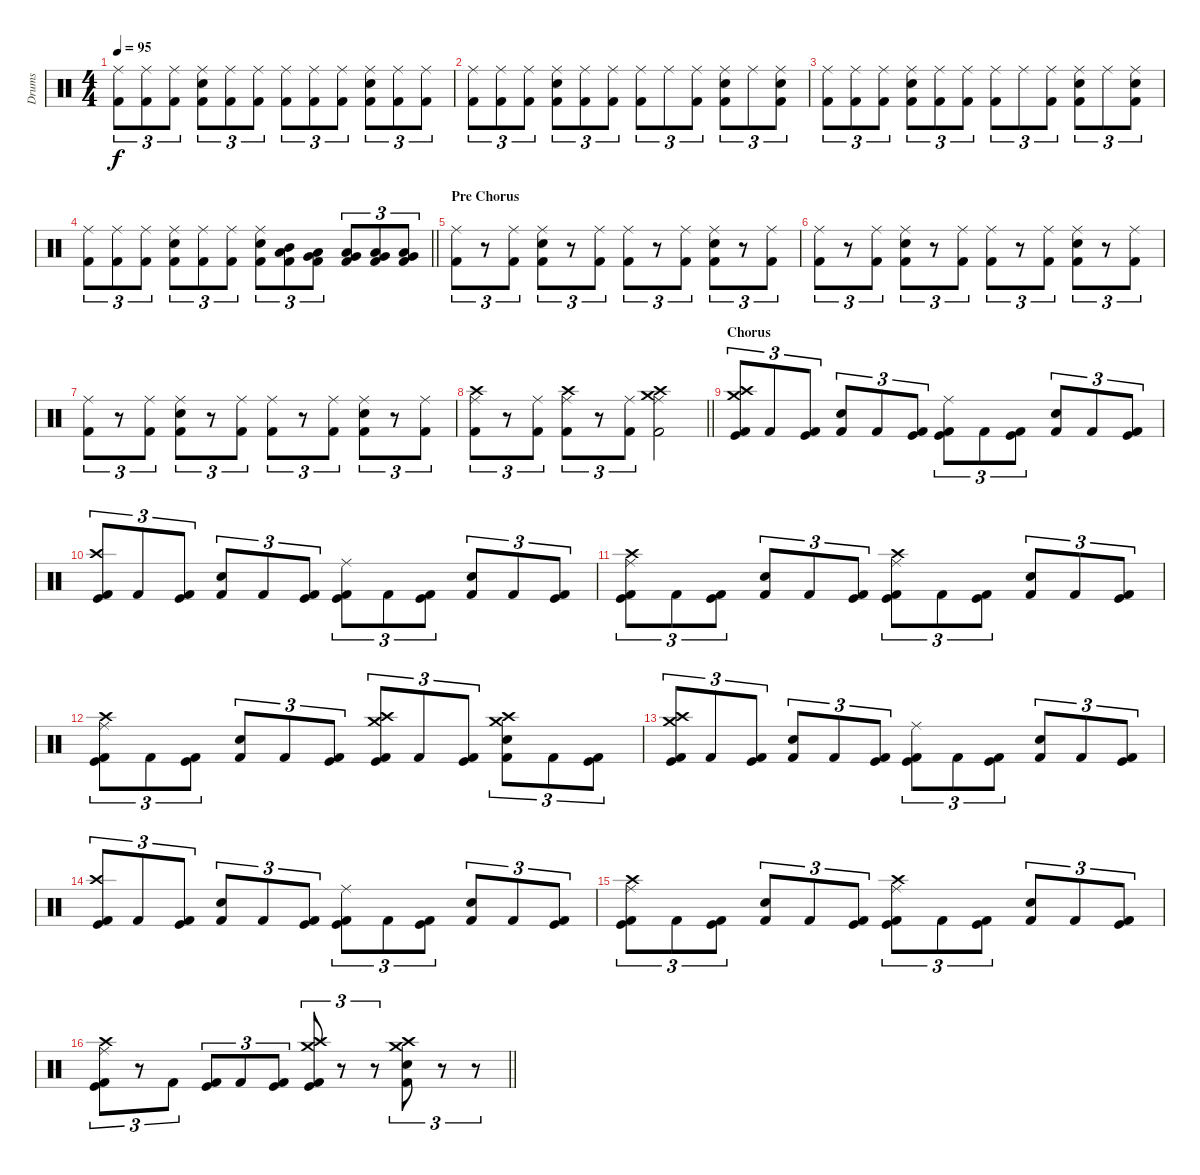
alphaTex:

\track ("Drums" "Drums") {instrument percussion}
\staff {score}
\articulation defaults
\ts (4 4)
\tempo 95
\clef neutral
\ks c
("Ride (middle)" "Kick (hit) 2").8{tu (3 2) dy f} ("Ride (middle)" "Kick (hit) 2").8{tu (3 2)} ("Ride (middle)" "Kick (hit) 2").8{tu (3 2)} ("Ride (middle)" "Kick (hit) 2" "Electric Snare (hit)").8{tu (3 2)} ("Ride (middle)" "Kick (hit) 2").8{tu (3 2)} ("Ride (middle)" "Kick (hit) 2").8{tu (3 2)} ("Ride (middle)" "Kick (hit) 2").8{tu (3 2)} ("Ride (middle)" "Kick (hit) 2").8{tu (3 2)} ("Ride (middle)" "Kick (hit) 2").8{tu (3 2)} ("Ride (middle)" "Kick (hit) 2" "Electric Snare (hit)").8{tu (3 2)} ("Ride (middle)" "Kick (hit) 2").8{tu (3 2)} ("Ride (middle)" "Kick (hit) 2").8{tu (3 2)} |
("Ride (middle)" "Kick (hit) 2").8{tu (3 2)} ("Ride (middle)" "Kick (hit) 2").8{tu (3 2)} ("Ride (middle)" "Kick (hit) 2").8{tu (3 2)} ("Ride (middle)" "Kick (hit) 2" "Electric Snare (hit)").8{tu (3 2)} ("Ride (middle)" "Kick (hit) 2").8{tu (3 2)} ("Ride (middle)" "Kick (hit) 2").8{tu (3 2)} ("Ride (middle)" "Kick (hit) 2").8{tu (3 2)} "Ride (middle)".8{tu (3 2)} ("Ride (middle)" "Kick (hit) 2").8{tu (3 2)} ("Ride (middle)" "Kick (hit) 2" "Electric Snare (hit)").8{tu (3 2)} "Ride (middle)".8{tu (3 2)} ("Ride (middle)" "Kick (hit) 2" "Snare (hit) 2").8{tu (3 2)} |
("Ride (middle)" "Kick (hit) 2").8{tu (3 2)} ("Ride (middle)" "Kick (hit) 2").8{tu (3 2)} ("Ride (middle)" "Kick (hit) 2").8{tu (3 2)} ("Ride (middle)" "Kick (hit) 2" "Electric Snare (hit)").8{tu (3 2)} ("Ride (middle)" "Kick (hit) 2").8{tu (3 2)} ("Ride (middle)" "Kick (hit) 2").8{tu (3 2)} ("Ride (middle)" "Kick (hit) 2").8{tu (3 2)} "Ride (middle)".8{tu (3 2)} ("Ride (middle)" "Kick (hit) 2").8{tu (3 2)} ("Ride (middle)" "Kick (hit) 2" "Electric Snare (hit)").8{tu (3 2)} "Ride (middle)".8{tu (3 2)} ("Ride (middle)" "Kick (hit) 2" "Snare (hit) 2").8{tu (3 2)} |
\barLineRight lightlight
("Ride (middle)" "Kick (hit) 2").8{tu (3 2)} ("Ride (middle)" "Kick (hit) 2").8{tu (3 2)} ("Ride (middle)" "Kick (hit) 2").8{tu (3 2)} ("Ride (middle)" "Kick (hit) 2" "Electric Snare (hit)").8{tu (3 2)} ("Ride (middle)" "Kick (hit) 2").8{tu (3 2)} ("Ride (middle)" "Kick (hit) 2").8{tu (3 2)} ("Ride (middle)" "Kick (hit) 2" "Electric Snare (hit)").8{tu (3 2)} ("Low Tom (hit)" "Mid Tom (hit)" "Kick (hit) 2").8{tu (3 2)} ("Very Low Tom (hit)" "Low Tom (hit)" "Kick (hit) 2").8{tu (3 2)} ("Very Low Tom (hit)" "Low Tom (hit)" "Kick (hit) 2").8{tu (3 2)} ("Low Floor Tom (hit)" "Very Low Tom (hit)" "Kick (hit) 2").8{tu (3 2)} ("Low Floor Tom (hit)" "Very Low Tom (hit)" "Kick (hit) 2").8{tu (3 2)} |
\section ("" "Pre Chorus")
("Ride (middle)" "Kick (hit) 2").8{tu (3 2)} r.8{tu (3 2)} ("Ride (middle)" "Kick (hit) 2").8{tu (3 2)} ("Ride (middle)" "Kick (hit) 2" "Snare (hit) 2").8{tu (3 2)} r.8{tu (3 2)} ("Ride (middle)" "Kick (hit) 2").8{tu (3 2)} ("Ride (middle)" "Kick (hit) 2").8{tu (3 2)} r.8{tu (3 2)} ("Ride (middle)" "Kick (hit) 2").8{tu (3 2)} ("Ride (middle)" "Kick (hit) 2" "Snare (hit) 2").8{tu (3 2)} r.8{tu (3 2)} ("Ride (middle)" "Kick (hit) 2").8{tu (3 2)} |
("Ride (middle)" "Kick (hit) 2").8{tu (3 2)} r.8{tu (3 2)} ("Ride (middle)" "Kick (hit) 2").8{tu (3 2)} ("Ride (middle)" "Kick (hit) 2" "Snare (hit) 2").8{tu (3 2)} r.8{tu (3 2)} ("Ride (middle)" "Kick (hit) 2").8{tu (3 2)} ("Ride (middle)" "Kick (hit) 2").8{tu (3 2)} r.8{tu (3 2)} ("Ride (middle)" "Kick (hit) 2").8{tu (3 2)} ("Ride (middle)" "Kick (hit) 2" "Snare (hit) 2").8{tu (3 2)} r.8{tu (3 2)} ("Ride (middle)" "Kick (hit) 2").8{tu (3 2)} |
("Ride (middle)" "Kick (hit) 2").8{tu (3 2)} r.8{tu (3 2)} ("Ride (middle)" "Kick (hit) 2").8{tu (3 2)} ("Ride (middle)" "Kick (hit) 2" "Snare (hit) 2").8{tu (3 2)} r.8{tu (3 2)} ("Ride (middle)" "Kick (hit) 2").8{tu (3 2)} ("Ride (middle)" "Kick (hit) 2").8{tu (3 2)} r.8{tu (3 2)} ("Ride (middle)" "Kick (hit) 2").8{tu (3 2)} ("Ride (middle)" "Kick (hit) 2" "Snare (hit) 2").8{tu (3 2)} r.8{tu (3 2)} ("Ride (middle)" "Kick (hit) 2").8{tu (3 2)} |
\barLineRight lightlight
("Ride (middle)" "Kick (hit) 2" "Crash high (hit)").8{tu (3 2)} r.8{tu (3 2)} ("Ride (middle)" "Kick (hit) 2").8{tu (3 2)} ("Ride (middle)" "Kick (hit) 2" "Crash high (hit)").8{tu (3 2)} r.8{tu (3 2)} ("Ride (middle)" "Kick (hit) 2").8{tu (3 2)} ("Crash medium (hit)" "Ride (middle)" "Kick (hit) 2" "Crash high (hit)").2 |
\section ("" "Chorus")
("Crash medium (hit)" "Kick (hit)" "Kick (hit) 2" "Crash high (hit)").8{tu (3 2)} "Kick (hit) 2".8{tu (3 2)} ("Kick (hit)" "Kick (hit) 2").8{tu (3 2)} ("Snare (hit) 2" "Kick (hit) 2").8{tu (3 2)} "Kick (hit) 2".8{tu (3 2)} ("Kick (hit)" "Kick (hit) 2").8{tu (3 2)} ("Ride (middle)" "Kick (hit)" "Kick (hit) 2").8{tu (3 2)} "Kick (hit) 2".8{tu (3 2)} ("Kick (hit)" "Kick (hit) 2").8{tu (3 2)} ("Snare (hit) 2" "Kick (hit) 2").8{tu (3 2)} "Kick (hit) 2".8{tu (3 2)} ("Kick (hit)" "Kick (hit) 2").8{tu (3 2)} |
("Kick (hit)" "Kick (hit) 2" "Crash high (hit)").8{tu (3 2)} "Kick (hit) 2".8{tu (3 2)} ("Kick (hit)" "Kick (hit) 2").8{tu (3 2)} ("Snare (hit) 2" "Kick (hit) 2").8{tu (3 2)} "Kick (hit) 2".8{tu (3 2)} ("Kick (hit)" "Kick (hit) 2").8{tu (3 2)} ("Ride (middle)" "Kick (hit)" "Kick (hit) 2").8{tu (3 2)} "Kick (hit) 2".8{tu (3 2)} ("Kick (hit)" "Kick (hit) 2").8{tu (3 2)} ("Snare (hit) 2" "Kick (hit) 2").8{tu (3 2)} "Kick (hit) 2".8{tu (3 2)} ("Kick (hit)" "Kick (hit) 2").8{tu (3 2)} |
("Ride (middle)" "Kick (hit)" "Kick (hit) 2" "Crash high (hit)").8{tu (3 2)} "Kick (hit) 2".8{tu (3 2)} ("Kick (hit)" "Kick (hit) 2").8{tu (3 2)} ("Snare (hit) 2" "Kick (hit) 2").8{tu (3 2)} "Kick (hit) 2".8{tu (3 2)} ("Kick (hit)" "Kick (hit) 2").8{tu (3 2)} ("Ride (middle)" "Kick (hit)" "Kick (hit) 2" "Crash high (hit)").8{tu (3 2)} "Kick (hit) 2".8{tu (3 2)} ("Kick (hit)" "Kick (hit) 2").8{tu (3 2)} ("Snare (hit) 2" "Kick (hit) 2").8{tu (3 2)} "Kick (hit) 2".8{tu (3 2)} ("Kick (hit)" "Kick (hit) 2").8{tu (3 2)} |
("Ride (middle)" "Kick (hit)" "Kick (hit) 2" "Crash high (hit)").8{tu (3 2)} "Kick (hit) 2".8{tu (3 2)} ("Kick (hit)" "Kick (hit) 2").8{tu (3 2)} ("Snare (hit) 2" "Kick (hit) 2").8{tu (3 2)} "Kick (hit) 2".8{tu (3 2)} ("Kick (hit)" "Kick (hit) 2").8{tu (3 2)} ("Crash medium (hit)" "Kick (hit)" "Kick (hit) 2" "Crash high (hit)").8{tu (3 2)} "Kick (hit) 2".8{tu (3 2)} ("Kick (hit)" "Kick (hit) 2").8{tu (3 2)} ("Crash medium (hit)" "Snare (hit) 2" "Kick (hit) 2" "Crash high (hit)").8{tu (3 2)} "Kick (hit) 2".8{tu (3 2)} ("Kick (hit)" "Kick (hit) 2").8{tu (3 2)} |
("Crash medium (hit)" "Kick (hit)" "Kick (hit) 2" "Crash high (hit)").8{tu (3 2)} "Kick (hit) 2".8{tu (3 2)} ("Kick (hit)" "Kick (hit) 2").8{tu (3 2)} ("Snare (hit) 2" "Kick (hit) 2").8{tu (3 2)} "Kick (hit) 2".8{tu (3 2)} ("Kick (hit)" "Kick (hit) 2").8{tu (3 2)} ("Ride (middle)" "Kick (hit)" "Kick (hit) 2").8{tu (3 2)} "Kick (hit) 2".8{tu (3 2)} ("Kick (hit)" "Kick (hit) 2").8{tu (3 2)} ("Snare (hit) 2" "Kick (hit) 2").8{tu (3 2)} "Kick (hit) 2".8{tu (3 2)} ("Kick (hit)" "Kick (hit) 2").8{tu (3 2)} |
("Kick (hit)" "Kick (hit) 2" "Crash high (hit)").8{tu (3 2)} "Kick (hit) 2".8{tu (3 2)} ("Kick (hit)" "Kick (hit) 2").8{tu (3 2)} ("Snare (hit) 2" "Kick (hit) 2").8{tu (3 2)} "Kick (hit) 2".8{tu (3 2)} ("Kick (hit)" "Kick (hit) 2").8{tu (3 2)} ("Ride (middle)" "Kick (hit)" "Kick (hit) 2").8{tu (3 2)} "Kick (hit) 2".8{tu (3 2)} ("Kick (hit)" "Kick (hit) 2").8{tu (3 2)} ("Snare (hit) 2" "Kick (hit) 2").8{tu (3 2)} "Kick (hit) 2".8{tu (3 2)} ("Kick (hit)" "Kick (hit) 2").8{tu (3 2)} |
("Ride (middle)" "Kick (hit)" "Kick (hit) 2" "Crash high (hit)").8{tu (3 2)} "Kick (hit) 2".8{tu (3 2)} ("Kick (hit)" "Kick (hit) 2").8{tu (3 2)} ("Snare (hit) 2" "Kick (hit) 2").8{tu (3 2)} "Kick (hit) 2".8{tu (3 2)} ("Kick (hit)" "Kick (hit) 2").8{tu (3 2)} ("Ride (middle)" "Kick (hit)" "Kick (hit) 2" "Crash high (hit)").8{tu (3 2)} "Kick (hit) 2".8{tu (3 2)} ("Kick (hit)" "Kick (hit) 2").8{tu (3 2)} ("Snare (hit) 2" "Kick (hit) 2").8{tu (3 2)} "Kick (hit) 2".8{tu (3 2)} ("Kick (hit)" "Kick (hit) 2").8{tu (3 2)} |
\barLineRight lightlight
("Ride (middle)" "Kick (hit)" "Kick (hit) 2" "Crash high (hit)").8{tu (3 2)} r.8{tu (3 2)} "Kick (hit) 2".8{tu (3 2)} ("Kick (hit)" "Kick (hit) 2").8{tu (3 2)} "Kick (hit) 2".8{tu (3 2)} ("Kick (hit)" "Kick (hit) 2").8{tu (3 2)} ("Crash medium (hit)" "Kick (hit)" "Kick (hit) 2" "Crash high (hit)").8{tu (3 2)} r.8{tu (3 2)} r.8{tu (3 2)} ("Crash medium (hit)" "Snare (hit) 2" "Kick (hit) 2" "Crash high (hit)").8{tu (3 2)} r.8{tu (3 2)} r.8{tu (3 2)}
